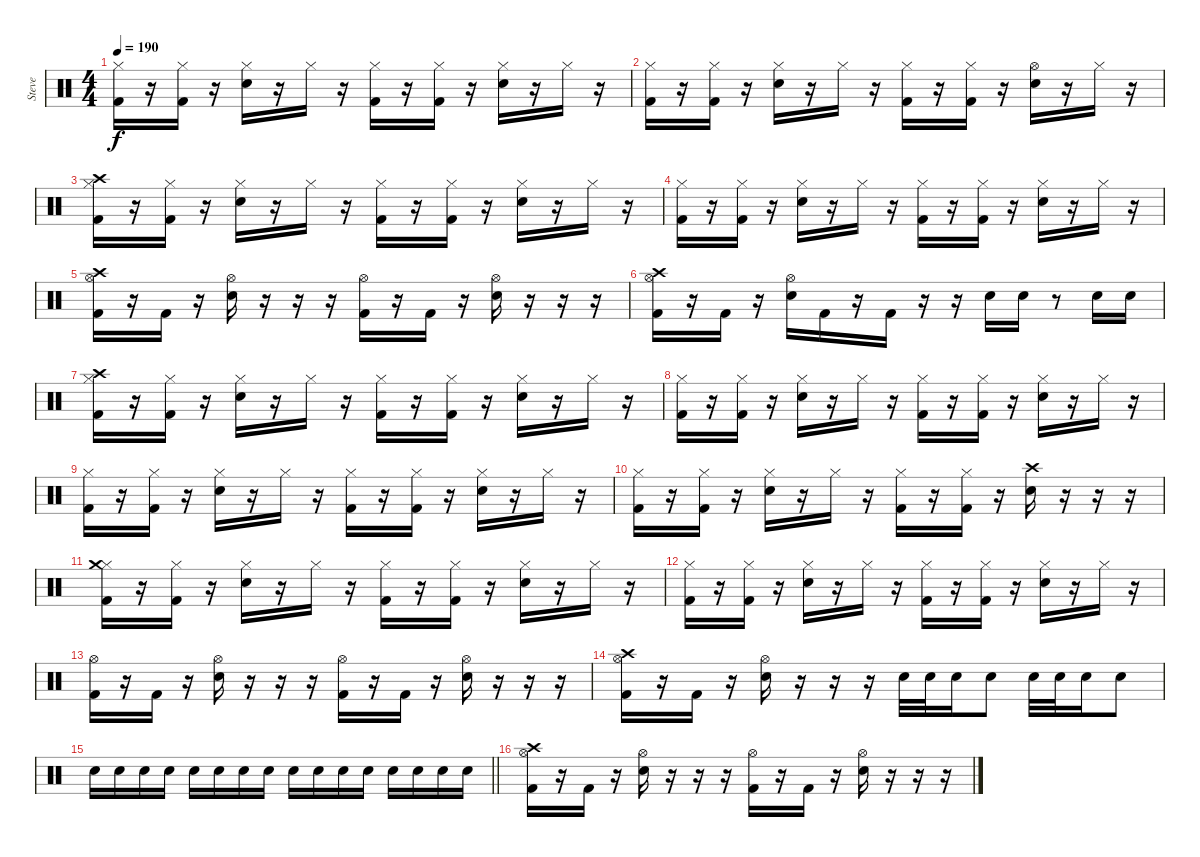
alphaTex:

\track ("Steve" "Steve") {instrument percussion}
\staff {score}
\articulation defaults
\ts (4 4)
\tempo 190
\clef neutral
\ks c
("Hi-Hat (closed)" "Kick (hit) 2").16{dy f} r.16 ("Hi-Hat (closed)" "Kick (hit) 2").16 r.16 ("Hi-Hat (closed)" "Snare (hit) 2").16 r.16 "Hi-Hat (closed)".16 r.16 ("Hi-Hat (closed)" "Kick (hit) 2").16 r.16 ("Hi-Hat (closed)" "Kick (hit) 2").16 r.16 ("Hi-Hat (closed)" "Snare (hit) 2").16 r.16 "Hi-Hat (closed)".16 r.16 |
("Hi-Hat (closed)" "Kick (hit) 2").16 r.16 ("Hi-Hat (closed)" "Kick (hit) 2").16 r.16 ("Hi-Hat (closed)" "Snare (hit) 2").16 r.16 "Hi-Hat (closed)".16 r.16 ("Hi-Hat (closed)" "Kick (hit) 2").16 r.16 ("Hi-Hat (closed)" "Kick (hit) 2").16 r.16 ("Hi-Hat (open)" "Snare (hit) 2").16 r.16 "Hi-Hat (closed)".16 r.16 |
("Hi-Hat (closed)" "Crash high (hit)" "Kick (hit) 2").16 r.16 ("Hi-Hat (closed)" "Kick (hit) 2").16 r.16 ("Hi-Hat (closed)" "Snare (hit) 2").16 r.16 "Hi-Hat (closed)".16 r.16 ("Hi-Hat (closed)" "Kick (hit) 2").16 r.16 ("Hi-Hat (closed)" "Kick (hit) 2").16 r.16 ("Hi-Hat (closed)" "Snare (hit) 2").16 r.16 "Hi-Hat (closed)".16 r.16 |
("Hi-Hat (closed)" "Kick (hit) 2").16 r.16 ("Hi-Hat (closed)" "Kick (hit) 2").16 r.16 ("Hi-Hat (closed)" "Snare (hit) 2").16 r.16 "Hi-Hat (closed)".16 r.16 ("Hi-Hat (closed)" "Kick (hit) 2").16 r.16 ("Hi-Hat (closed)" "Kick (hit) 2").16 r.16 ("Hi-Hat (closed)" "Snare (hit) 2").16 r.16 "Hi-Hat (closed)".16 r.16 |
("Hi-Hat (open)" "Crash high (hit)" "Kick (hit) 2").16 r.16 "Kick (hit) 2".16 r.16 ("Hi-Hat (open)" "Snare (hit) 2").16 r.16 r.16 r.16 ("Hi-Hat (open)" "Kick (hit) 2").16 r.16 "Kick (hit) 2".16 r.16 ("Hi-Hat (open)" "Snare (hit) 2").16 r.16 r.16 r.16 |
("Hi-Hat (open)" "Crash high (hit)" "Kick (hit) 2").16 r.16 "Kick (hit) 2".16 r.16 ("Hi-Hat (open)" "Snare (hit) 2").16 "Kick (hit) 2".16 r.16 "Kick (hit) 2".16 r.16 r.16 "Snare (hit) 2".16 "Snare (hit) 2".16 r.8 "Snare (hit) 2".16 "Snare (hit) 2".16 |
("Hi-Hat (closed)" "Crash high (hit)" "Kick (hit) 2").16 r.16 ("Hi-Hat (closed)" "Kick (hit) 2").16 r.16 ("Hi-Hat (closed)" "Snare (hit) 2").16 r.16 "Hi-Hat (closed)".16 r.16 ("Hi-Hat (closed)" "Kick (hit) 2").16 r.16 ("Hi-Hat (closed)" "Kick (hit) 2").16 r.16 ("Hi-Hat (closed)" "Snare (hit) 2").16 r.16 "Hi-Hat (closed)".16 r.16 |
("Hi-Hat (closed)" "Kick (hit) 2").16 r.16 ("Hi-Hat (closed)" "Kick (hit) 2").16 r.16 ("Hi-Hat (closed)" "Snare (hit) 2").16 r.16 "Hi-Hat (closed)".16 r.16 ("Hi-Hat (closed)" "Kick (hit) 2").16 r.16 ("Hi-Hat (closed)" "Kick (hit) 2").16 r.16 ("Hi-Hat (closed)" "Snare (hit) 2").16 r.16 "Hi-Hat (closed)".16 r.16 |
("Hi-Hat (closed)" "Kick (hit) 2").16 r.16 ("Hi-Hat (closed)" "Kick (hit) 2").16 r.16 ("Hi-Hat (closed)" "Snare (hit) 2").16 r.16 "Hi-Hat (closed)".16 r.16 ("Hi-Hat (closed)" "Kick (hit) 2").16 r.16 ("Hi-Hat (closed)" "Kick (hit) 2").16 r.16 ("Hi-Hat (closed)" "Snare (hit) 2").16 r.16 "Hi-Hat (closed)".16 r.16 |
("Hi-Hat (closed)" "Kick (hit) 2").16 r.16 ("Hi-Hat (closed)" "Kick (hit) 2").16 r.16 ("Hi-Hat (closed)" "Snare (hit) 2").16 r.16 "Hi-Hat (closed)".16 r.16 ("Hi-Hat (closed)" "Kick (hit) 2").16 r.16 ("Hi-Hat (closed)" "Kick (hit) 2").16 r.16 ("Crash high (hit)" "Snare (hit) 2").16 r.16 r.16 r.16 |
("Hi-Hat (closed)" "Crash medium (hit)" "Kick (hit) 2").16 r.16 ("Hi-Hat (closed)" "Kick (hit) 2").16 r.16 ("Hi-Hat (closed)" "Snare (hit) 2").16 r.16 "Hi-Hat (closed)".16 r.16 ("Hi-Hat (closed)" "Kick (hit) 2").16 r.16 ("Hi-Hat (closed)" "Kick (hit) 2").16 r.16 ("Hi-Hat (closed)" "Snare (hit) 2").16 r.16 "Hi-Hat (closed)".16 r.16 |
("Hi-Hat (closed)" "Kick (hit) 2").16 r.16 ("Hi-Hat (closed)" "Kick (hit) 2").16 r.16 ("Hi-Hat (closed)" "Snare (hit) 2").16 r.16 "Hi-Hat (closed)".16 r.16 ("Hi-Hat (closed)" "Kick (hit) 2").16 r.16 ("Hi-Hat (closed)" "Kick (hit) 2").16 r.16 ("Hi-Hat (closed)" "Snare (hit) 2").16 r.16 "Hi-Hat (closed)".16 r.16 |
("Hi-Hat (open)" "Kick (hit) 2").16 r.16 "Kick (hit) 2".16 r.16 ("Hi-Hat (open)" "Snare (hit) 2").16 r.16 r.16 r.16 ("Hi-Hat (open)" "Kick (hit) 2").16 r.16 "Kick (hit) 2".16 r.16 ("Hi-Hat (open)" "Snare (hit) 2").16 r.16 r.16 r.16 |
("Hi-Hat (open)" "Crash high (hit)" "Kick (hit) 2").16 r.16 "Kick (hit) 2".16 r.16 ("Hi-Hat (open)" "Snare (hit) 2").16 r.16 r.16 r.16 "Snare (hit) 2".32 "Snare (hit) 2".32 "Snare (hit) 2".16 "Snare (hit) 2".8 "Snare (hit) 2".32 "Snare (hit) 2".32 "Snare (hit) 2".16 "Snare (hit) 2".8 |
\barLineRight lightlight "Snare (hit) 2".16 "Snare (hit) 2".16 "Snare (hit) 2".16 "Snare (hit) 2".16 "Snare (hit) 2".16 "Snare (hit) 2".16 "Snare (hit) 2".16 "Snare (hit) 2".16 "Snare (hit) 2".16 "Snare (hit) 2".16 "Snare (hit) 2".16 "Snare (hit) 2".16 "Snare (hit) 2".16 "Snare (hit) 2".16 "Snare (hit) 2".16 "Snare (hit) 2".16
|
("Hi-Hat (open)" "Crash high (hit)" "Kick (hit) 2").16 r.16 "Kick (hit) 2".16 r.16 ("Hi-Hat (open)" "Snare (hit) 2").16 r.16 r.16 r.16 ("Hi-Hat (open)" "Kick (hit) 2").16 r.16 "Kick (hit) 2".16 r.16 ("Hi-Hat (open)" "Snare (hit) 2").16 r.16 r.16 r.16
